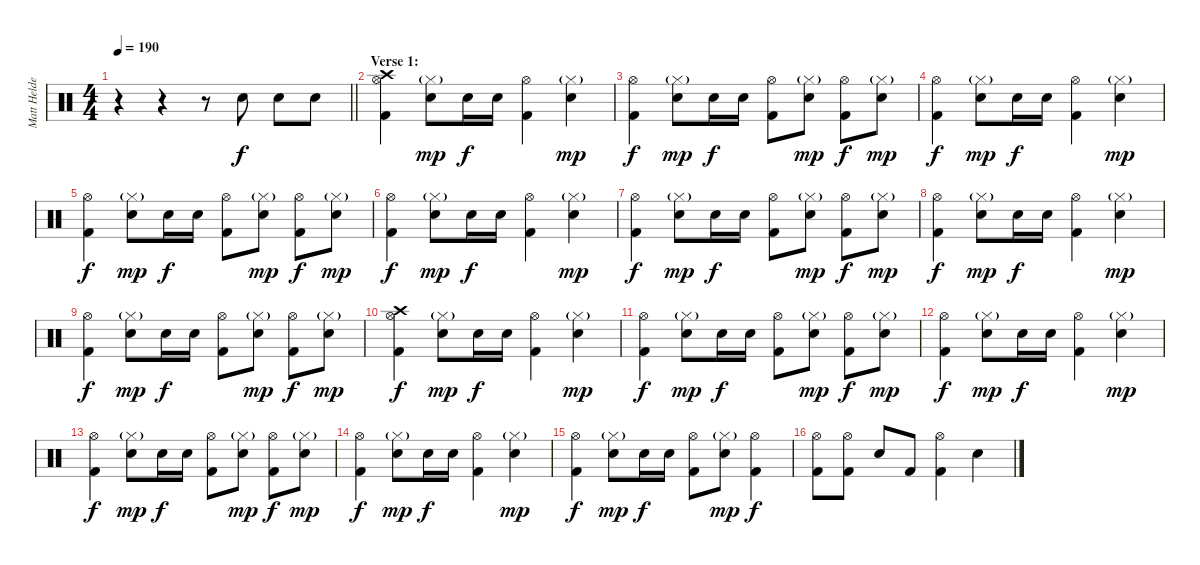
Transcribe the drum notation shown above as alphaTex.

\track ("Matt Helders (Percussion)" "Matt Helde") {instrument percussion}
\staff {score}
\articulation defaults
\ts (4 4)
\tempo 190
\clef neutral
\barLineRight lightlight
\ks c
r.4{dy f} r.4 r.8 "Snare (hit) 2".8 "Snare (hit) 2".8 "Snare (hit) 2".8 |
\section ("" "Verse 1:")
("Crash high (hit)" "Hi-Hat (open)" "Kick (hit) 2").4 ("Hi-Hat (closed)"{g} "Snare (hit) 2").8{dy mp} "Snare (hit) 2".16{dy f} "Snare (hit) 2".16 ("Hi-Hat (open)" "Kick (hit) 2").4 ("Hi-Hat (closed)"{g} "Snare (hit) 2").4{dy mp} |
("Hi-Hat (open)" "Kick (hit) 2").4{dy f} ("Hi-Hat (closed)"{g} "Snare (hit) 2").8{dy mp} "Snare (hit) 2".16{dy f} "Snare (hit) 2".16 ("Hi-Hat (open)" "Kick (hit) 2").8 ("Hi-Hat (closed)"{g} "Snare (hit) 2").8{dy mp} ("Hi-Hat (open)" "Kick (hit) 2").8{dy f} ("Hi-Hat (closed)"{g} "Snare (hit) 2").8{dy mp} |
("Hi-Hat (open)" "Kick (hit) 2").4{dy f} ("Hi-Hat (closed)"{g} "Snare (hit) 2").8{dy mp} "Snare (hit) 2".16{dy f} "Snare (hit) 2".16 ("Hi-Hat (open)" "Kick (hit) 2").4 ("Hi-Hat (closed)"{g} "Snare (hit) 2").4{dy mp} |
("Hi-Hat (open)" "Kick (hit) 2").4{dy f} ("Hi-Hat (closed)"{g} "Snare (hit) 2").8{dy mp} "Snare (hit) 2".16{dy f} "Snare (hit) 2".16 ("Hi-Hat (open)" "Kick (hit) 2").8 ("Hi-Hat (closed)"{g} "Snare (hit) 2").8{dy mp} ("Hi-Hat (open)" "Kick (hit) 2").8{dy f} ("Hi-Hat (closed)"{g} "Snare (hit) 2").8{dy mp} |
("Hi-Hat (open)" "Kick (hit) 2").4{dy f} ("Hi-Hat (closed)"{g} "Snare (hit) 2").8{dy mp} "Snare (hit) 2".16{dy f} "Snare (hit) 2".16 ("Hi-Hat (open)" "Kick (hit) 2").4 ("Hi-Hat (closed)"{g} "Snare (hit) 2").4{dy mp} |
("Hi-Hat (open)" "Kick (hit) 2").4{dy f} ("Hi-Hat (closed)"{g} "Snare (hit) 2").8{dy mp} "Snare (hit) 2".16{dy f} "Snare (hit) 2".16 ("Hi-Hat (open)" "Kick (hit) 2").8 ("Hi-Hat (closed)"{g} "Snare (hit) 2").8{dy mp} ("Hi-Hat (open)" "Kick (hit) 2").8{dy f} ("Hi-Hat (closed)"{g} "Snare (hit) 2").8{dy mp} |
("Hi-Hat (open)" "Kick (hit) 2").4{dy f} ("Hi-Hat (closed)"{g} "Snare (hit) 2").8{dy mp} "Snare (hit) 2".16{dy f} "Snare (hit) 2".16 ("Hi-Hat (open)" "Kick (hit) 2").4 ("Hi-Hat (closed)"{g} "Snare (hit) 2").4{dy mp} |
("Hi-Hat (open)" "Kick (hit) 2").4{dy f} ("Hi-Hat (closed)"{g} "Snare (hit) 2").8{dy mp} "Snare (hit) 2".16{dy f} "Snare (hit) 2".16 ("Hi-Hat (open)" "Kick (hit) 2").8 ("Hi-Hat (closed)"{g} "Snare (hit) 2").8{dy mp} ("Hi-Hat (open)" "Kick (hit) 2").8{dy f} ("Hi-Hat (closed)"{g} "Snare (hit) 2").8{dy mp} |
("Crash high (hit)" "Hi-Hat (open)" "Kick (hit) 2").4{dy f} ("Hi-Hat (closed)"{g} "Snare (hit) 2").8{dy mp} "Snare (hit) 2".16{dy f} "Snare (hit) 2".16 ("Hi-Hat (open)" "Kick (hit) 2").4 ("Hi-Hat (closed)"{g} "Snare (hit) 2").4{dy mp} |
("Hi-Hat (open)" "Kick (hit) 2").4{dy f} ("Hi-Hat (closed)"{g} "Snare (hit) 2").8{dy mp} "Snare (hit) 2".16{dy f} "Snare (hit) 2".16 ("Hi-Hat (open)" "Kick (hit) 2").8 ("Hi-Hat (closed)"{g} "Snare (hit) 2").8{dy mp} ("Hi-Hat (open)" "Kick (hit) 2").8{dy f} ("Hi-Hat (closed)"{g} "Snare (hit) 2").8{dy mp} |
("Hi-Hat (open)" "Kick (hit) 2").4{dy f} ("Hi-Hat (closed)"{g} "Snare (hit) 2").8{dy mp} "Snare (hit) 2".16{dy f} "Snare (hit) 2".16 ("Hi-Hat (open)" "Kick (hit) 2").4 ("Hi-Hat (closed)"{g} "Snare (hit) 2").4{dy mp} |
("Hi-Hat (open)" "Kick (hit) 2").4{dy f} ("Hi-Hat (closed)"{g} "Snare (hit) 2").8{dy mp} "Snare (hit) 2".16{dy f} "Snare (hit) 2".16 ("Hi-Hat (open)" "Kick (hit) 2").8 ("Hi-Hat (closed)"{g} "Snare (hit) 2").8{dy mp} ("Hi-Hat (open)" "Kick (hit) 2").8{dy f} ("Hi-Hat (closed)"{g} "Snare (hit) 2").8{dy mp} |
("Hi-Hat (open)" "Kick (hit) 2").4{dy f} ("Hi-Hat (closed)"{g} "Snare (hit) 2").8{dy mp} "Snare (hit) 2".16{dy f} "Snare (hit) 2".16 ("Hi-Hat (open)" "Kick (hit) 2").4 ("Hi-Hat (closed)"{g} "Snare (hit) 2").4{dy mp} |
("Hi-Hat (open)" "Kick (hit) 2").4{dy f} ("Hi-Hat (closed)"{g} "Snare (hit) 2").8{dy mp} "Snare (hit) 2".16{dy f} "Snare (hit) 2".16 ("Hi-Hat (open)" "Kick (hit) 2").8 ("Hi-Hat (closed)"{g} "Snare (hit) 2").8{dy mp} ("Hi-Hat (open)" "Kick (hit) 2").4{dy f} |
("Hi-Hat (open)" "Kick (hit) 2").8 ("Hi-Hat (open)" "Kick (hit) 2").8 "Snare (hit) 2".8 "Kick (hit) 2".8 ("Hi-Hat (open)" "Kick (hit) 2").4 "Snare (hit) 2".4
